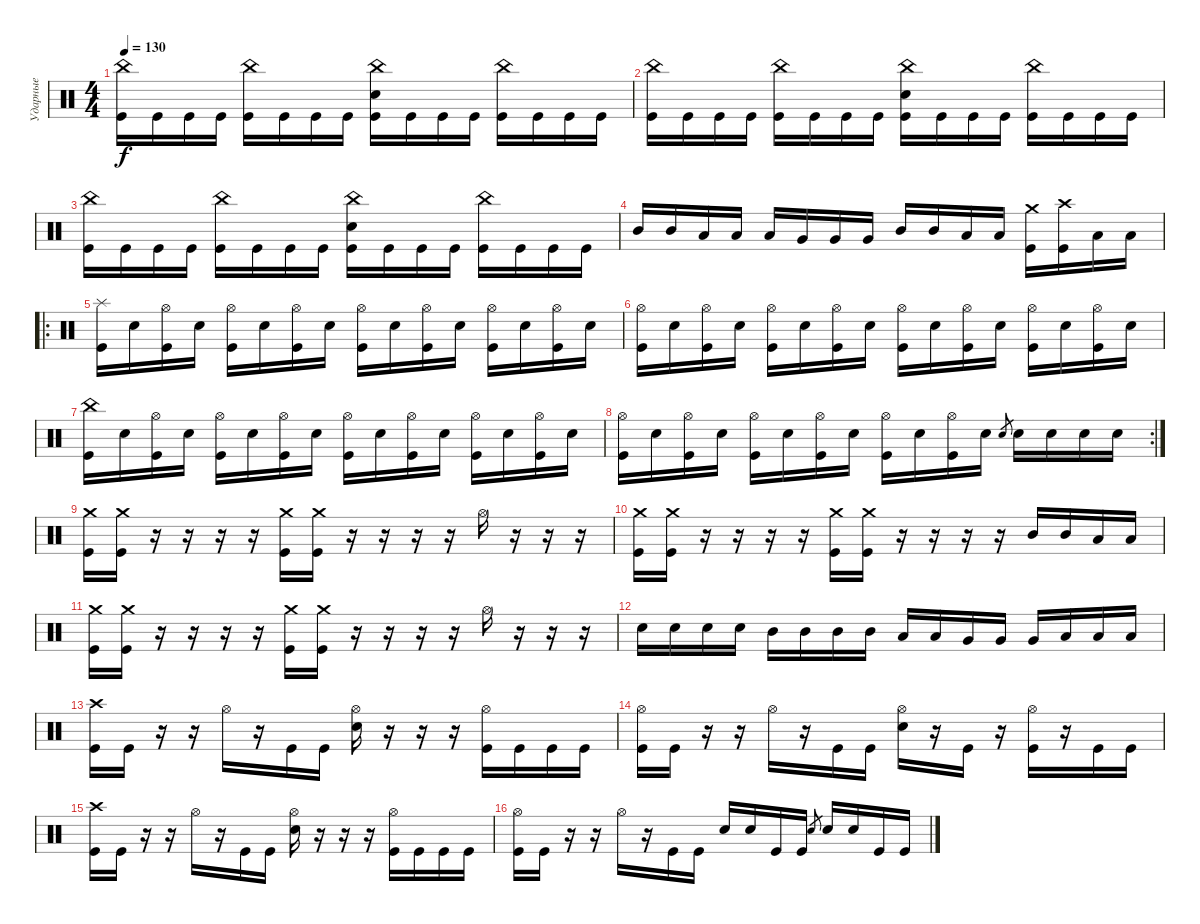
\track ("Ударные" "Ударные") {instrument percussion}
\staff {score}
\articulation defaults
\ts (4 4)
\tempo 130
\clef neutral
\ks c
("China (hit)" "Kick (hit)").16{dy f} "Kick (hit)".16 "Kick (hit)".16 "Kick (hit)".16 ("China (hit)" "Kick (hit)").16 "Kick (hit)".16 "Kick (hit)".16 "Kick (hit)".16 ("China (hit)" "Snare (hit) 2" "Kick (hit)").16 "Kick (hit)".16 "Kick (hit)".16 "Kick (hit)".16 ("China (hit)" "Kick (hit)").16 "Kick (hit)".16 "Kick (hit)".16 "Kick (hit)".16 |
("China (hit)" "Kick (hit)").16 "Kick (hit)".16 "Kick (hit)".16 "Kick (hit)".16 ("China (hit)" "Kick (hit)").16 "Kick (hit)".16 "Kick (hit)".16 "Kick (hit)".16 ("China (hit)" "Snare (hit) 2" "Kick (hit)").16 "Kick (hit)".16 "Kick (hit)".16 "Kick (hit)".16 ("China (hit)" "Kick (hit)").16 "Kick (hit)".16 "Kick (hit)".16 "Kick (hit)".16 |
("China (hit)" "Kick (hit)").16 "Kick (hit)".16 "Kick (hit)".16 "Kick (hit)".16 ("China (hit)" "Kick (hit)").16 "Kick (hit)".16 "Kick (hit)".16 "Kick (hit)".16 ("China (hit)" "Snare (hit) 2" "Kick (hit)").16 "Kick (hit)".16 "Kick (hit)".16 "Kick (hit)".16 ("China (hit)" "Kick (hit)").16 "Kick (hit)".16 "Kick (hit)".16 "Kick (hit)".16 |
"Mid Tom (hit)".16 "Mid Tom (hit)".16 "Low Tom (hit)".16 "Low Tom (hit)".16 "Low Tom (hit)".16 "Very Low Tom (hit)".16 "Very Low Tom (hit)".16 "Very Low Tom (hit)".16 "Mid Tom (hit)".16 "Mid Tom (hit)".16 "Low Tom (hit)".16 "Low Tom (hit)".16 ("Crash medium (hit)" "Kick (hit)").16 ("Crash high (hit)" "Kick (hit)").16 "Low Tom (hit)".16 "Low Tom (hit)".16 |
\ro
("Splash (hit)" "Kick (hit)").16 "Snare (hit) 2".16 ("Hi-Hat (open)" "Kick (hit)").16 "Snare (hit) 2".16 ("Hi-Hat (open)" "Kick (hit)").16 "Snare (hit) 2".16 ("Hi-Hat (open)" "Kick (hit)").16 "Snare (hit) 2".16 ("Hi-Hat (open)" "Kick (hit)").16 "Snare (hit) 2".16 ("Hi-Hat (open)" "Kick (hit)").16 "Snare (hit) 2".16 ("Hi-Hat (open)" "Kick (hit)").16 "Snare (hit) 2".16 ("Hi-Hat (open)" "Kick (hit)").16 "Snare (hit) 2".16 |
("Hi-Hat (open)" "Kick (hit)").16 "Snare (hit) 2".16 ("Hi-Hat (open)" "Kick (hit)").16 "Snare (hit) 2".16 ("Hi-Hat (open)" "Kick (hit)").16 "Snare (hit) 2".16 ("Hi-Hat (open)" "Kick (hit)").16 "Snare (hit) 2".16 ("Hi-Hat (open)" "Kick (hit)").16 "Snare (hit) 2".16 ("Hi-Hat (open)" "Kick (hit)").16 "Snare (hit) 2".16 ("Hi-Hat (open)" "Kick (hit)").16 "Snare (hit) 2".16 ("Hi-Hat (open)" "Kick (hit)").16 "Snare (hit) 2".16 |
("China (hit)" "Kick (hit)").16 "Snare (hit) 2".16 ("Hi-Hat (open)" "Kick (hit)").16 "Snare (hit) 2".16 ("Hi-Hat (open)" "Kick (hit)").16 "Snare (hit) 2".16 ("Hi-Hat (open)" "Kick (hit)").16 "Snare (hit) 2".16 ("Hi-Hat (open)" "Kick (hit)").16 "Snare (hit) 2".16 ("Hi-Hat (open)" "Kick (hit)").16 "Snare (hit) 2".16 ("Hi-Hat (open)" "Kick (hit)").16 "Snare (hit) 2".16 ("Hi-Hat (open)" "Kick (hit)").16 "Snare (hit) 2".16 |
\rc 2
("Hi-Hat (open)" "Kick (hit)").16 "Snare (hit) 2".16 ("Hi-Hat (open)" "Kick (hit)").16 "Snare (hit) 2".16 ("Hi-Hat (open)" "Kick (hit)").16 "Snare (hit) 2".16 ("Hi-Hat (open)" "Kick (hit)").16 "Snare (hit) 2".16 ("Hi-Hat (open)" "Kick (hit)").16 "Snare (hit) 2".16 ("Hi-Hat (open)" "Kick (hit)").16 "Snare (hit) 2".16 "Snare (hit) 2".8{gr} "Snare (hit) 2".16 "Snare (hit) 2".16 "Snare (hit) 2".16 "Snare (hit) 2".16 |
("Crash medium (hit)" "Kick (hit)").16 ("Crash medium (hit)" "Kick (hit)").16 r.16 r.16 r.16 r.16 ("Crash medium (hit)" "Kick (hit)").16 ("Crash medium (hit)" "Kick (hit)").16 r.16 r.16 r.16 r.16 "Hi-Hat (open)".16 r.16 r.16 r.16 |
("Crash medium (hit)" "Kick (hit)").16 ("Crash medium (hit)" "Kick (hit)").16 r.16 r.16 r.16 r.16 ("Crash medium (hit)" "Kick (hit)").16 ("Crash medium (hit)" "Kick (hit)").16 r.16 r.16 r.16 r.16 "Mid Tom (hit)".16 "Mid Tom (hit)".16 "Low Tom (hit)".16 "Low Tom (hit)".16 |
("Crash medium (hit)" "Kick (hit)").16 ("Crash medium (hit)" "Kick (hit)").16 r.16 r.16 r.16 r.16 ("Crash medium (hit)" "Kick (hit)").16 ("Crash medium (hit)" "Kick (hit)").16 r.16 r.16 r.16 r.16 "Hi-Hat (open)".16 r.16 r.16 r.16 |
"Snare (hit) 2".16 "Snare (hit) 2".16 "Snare (hit) 2".16 "Snare (hit) 2".16 "Mid Tom (hit)".16 "Mid Tom (hit)".16 "Mid Tom (hit)".16 "Mid Tom (hit)".16 "Low Tom (hit)".16 "Low Tom (hit)".16 "Very Low Tom (hit)".16 "Very Low Tom (hit)".16 "Very Low Tom (hit)".16 "Low Tom (hit)".16 "Low Tom (hit)".16 "Low Tom (hit)".16 |
("Crash high (hit)" "Kick (hit)").16 "Kick (hit)".16 r.16 r.16 "Hi-Hat (open)".16 r.16 "Kick (hit)".16 "Kick (hit)".16 ("Snare (hit) 2" "Hi-Hat (open)").16 r.16 r.16 r.16 ("Hi-Hat (open)" "Kick (hit)").16 "Kick (hit)".16 "Kick (hit)".16 "Kick (hit)".16 |
("Hi-Hat (open)" "Kick (hit)").16 "Kick (hit)".16 r.16 r.16 "Hi-Hat (open)".16 r.16 "Kick (hit)".16 "Kick (hit)".16 ("Hi-Hat (open)" "Snare (hit) 2").16 r.16 "Kick (hit)".16 r.16 ("Hi-Hat (open)" "Kick (hit)").16 r.16 "Kick (hit)".16 "Kick (hit)".16 |
("Crash high (hit)" "Kick (hit)").16 "Kick (hit)".16 r.16 r.16 "Hi-Hat (open)".16 r.16 "Kick (hit)".16 "Kick (hit)".16 ("Snare (hit) 2" "Hi-Hat (open)").16 r.16 r.16 r.16 ("Hi-Hat (open)" "Kick (hit)").16 "Kick (hit)".16 "Kick (hit)".16 "Kick (hit)".16 |
("Hi-Hat (open)" "Kick (hit)").16 "Kick (hit)".16 r.16 r.16 "Hi-Hat (open)".16 r.16 "Kick (hit)".16 "Kick (hit)".16 "Snare (hit) 2".16 "Snare (hit) 2".16 "Kick (hit)".16 "Kick (hit)".16 "Snare (hit) 2".8{gr} "Snare (hit) 2".16 "Snare (hit) 2".16 "Kick (hit)".16 "Kick (hit)".16
